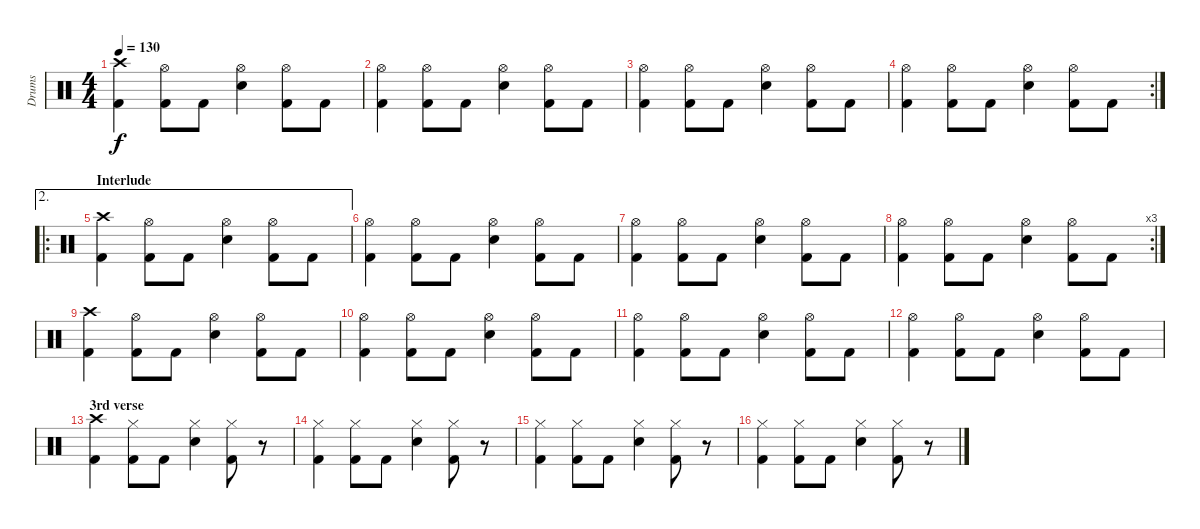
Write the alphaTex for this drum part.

\track ("Drums" "Drums") {instrument percussion}
\staff {score}
\articulation defaults
\ts (4 4)
\tempo 130
\clef neutral
\ks c
("Crash high (hit)" "Kick (hit) 2").4{dy f} ("Hi-Hat (open)" "Kick (hit) 2").8 "Kick (hit) 2".8 ("Hi-Hat (open)" "Electric Snare (hit)").4 ("Hi-Hat (open)" "Kick (hit) 2").8 "Kick (hit) 2".8 |
("Hi-Hat (open)" "Kick (hit) 2").4 ("Hi-Hat (open)" "Kick (hit) 2").8 "Kick (hit) 2".8 ("Hi-Hat (open)" "Electric Snare (hit)").4 ("Hi-Hat (open)" "Kick (hit) 2").8 "Kick (hit) 2".8 |
("Hi-Hat (open)" "Kick (hit) 2").4 ("Hi-Hat (open)" "Kick (hit) 2").8 "Kick (hit) 2".8 ("Hi-Hat (open)" "Electric Snare (hit)").4 ("Hi-Hat (open)" "Kick (hit) 2").8 "Kick (hit) 2".8 |
\rc 2
("Hi-Hat (open)" "Kick (hit) 2").4 ("Hi-Hat (open)" "Kick (hit) 2").8 "Kick (hit) 2".8 ("Hi-Hat (open)" "Electric Snare (hit)").4 ("Hi-Hat (open)" "Kick (hit) 2").8 "Kick (hit) 2".8 |
\ae 2
\ro
\section ("" "Interlude")
("Crash high (hit)" "Kick (hit) 2").4 ("Hi-Hat (open)" "Kick (hit) 2").8 "Kick (hit) 2".8 ("Hi-Hat (open)" "Electric Snare (hit)").4 ("Hi-Hat (open)" "Kick (hit) 2").8 "Kick (hit) 2".8 |
("Hi-Hat (open)" "Kick (hit) 2").4 ("Hi-Hat (open)" "Kick (hit) 2").8 "Kick (hit) 2".8 ("Hi-Hat (open)" "Electric Snare (hit)").4 ("Hi-Hat (open)" "Kick (hit) 2").8 "Kick (hit) 2".8 |
("Hi-Hat (open)" "Kick (hit) 2").4 ("Hi-Hat (open)" "Kick (hit) 2").8 "Kick (hit) 2".8 ("Hi-Hat (open)" "Electric Snare (hit)").4 ("Hi-Hat (open)" "Kick (hit) 2").8 "Kick (hit) 2".8 |
\rc 3
("Hi-Hat (open)" "Kick (hit) 2").4 ("Hi-Hat (open)" "Kick (hit) 2").8 "Kick (hit) 2".8 ("Hi-Hat (open)" "Electric Snare (hit)").4 ("Hi-Hat (open)" "Kick (hit) 2").8 "Kick (hit) 2".8 |
("Crash high (hit)" "Kick (hit) 2").4 ("Hi-Hat (open)" "Kick (hit) 2").8 "Kick (hit) 2".8 ("Hi-Hat (open)" "Electric Snare (hit)").4 ("Hi-Hat (open)" "Kick (hit) 2").8 "Kick (hit) 2".8 |
("Hi-Hat (open)" "Kick (hit) 2").4 ("Hi-Hat (open)" "Kick (hit) 2").8 "Kick (hit) 2".8 ("Hi-Hat (open)" "Electric Snare (hit)").4 ("Hi-Hat (open)" "Kick (hit) 2").8 "Kick (hit) 2".8 |
("Hi-Hat (open)" "Kick (hit) 2").4 ("Hi-Hat (open)" "Kick (hit) 2").8 "Kick (hit) 2".8 ("Hi-Hat (open)" "Electric Snare (hit)").4 ("Hi-Hat (open)" "Kick (hit) 2").8 "Kick (hit) 2".8 |
("Hi-Hat (open)" "Kick (hit) 2").4 ("Hi-Hat (open)" "Kick (hit) 2").8 "Kick (hit) 2".8 ("Hi-Hat (open)" "Electric Snare (hit)").4 ("Hi-Hat (open)" "Kick (hit) 2").8 "Kick (hit) 2".8 |
\section ("" "3rd verse")
("Crash high (hit)" "Kick (hit) 2").4 ("Hi-Hat (closed)" "Kick (hit) 2").8 "Kick (hit) 2".8 ("Hi-Hat (closed)" "Electric Snare (hit)").4 ("Hi-Hat (closed)" "Kick (hit) 2").8 r.8 |
("Hi-Hat (closed)" "Kick (hit) 2").4 ("Hi-Hat (closed)" "Kick (hit) 2").8 "Kick (hit) 2".8 ("Hi-Hat (closed)" "Electric Snare (hit)").4 ("Hi-Hat (closed)" "Kick (hit) 2").8 r.8 |
("Hi-Hat (closed)" "Kick (hit) 2").4 ("Hi-Hat (closed)" "Kick (hit) 2").8 "Kick (hit) 2".8 ("Hi-Hat (closed)" "Electric Snare (hit)").4 ("Hi-Hat (closed)" "Kick (hit) 2").8 r.8 |
("Hi-Hat (closed)" "Kick (hit) 2").4 ("Hi-Hat (closed)" "Kick (hit) 2").8 "Kick (hit) 2".8 ("Hi-Hat (closed)" "Electric Snare (hit)").4 ("Hi-Hat (closed)" "Kick (hit) 2").8 r.8
